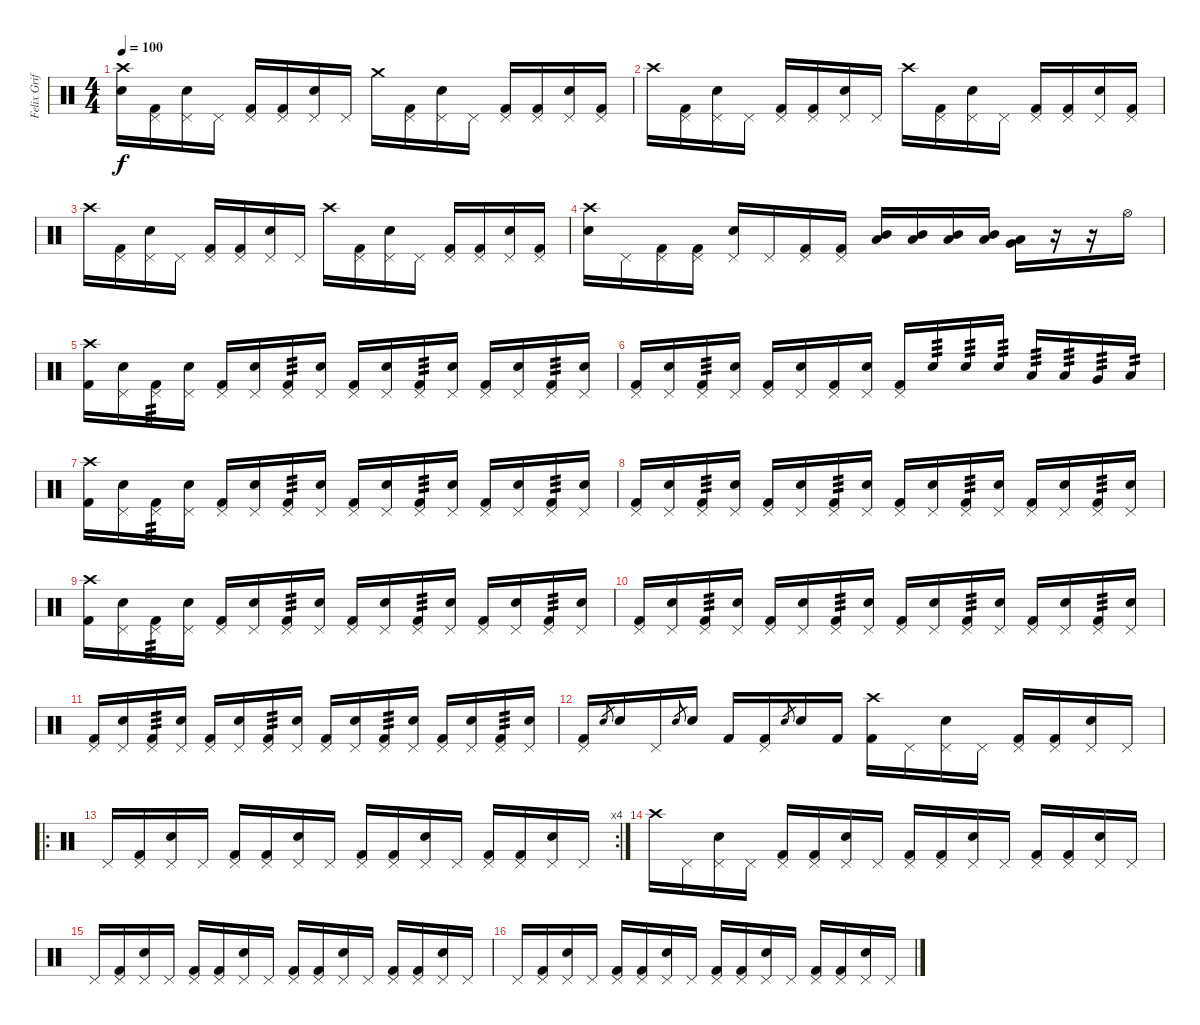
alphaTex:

\track ("Felix Griffen" "Felix Grif") {instrument percussion}
\staff {score}
\articulation defaults
\ts (4 4)
\tempo 100
\clef neutral
\ks c
("Crash high (hit)" "Electric Snare (hit)").16{dy f} ("Pedal Hi-Hat (hit)" "Kick (hit) 2").16 ("Pedal Hi-Hat (hit)" "Electric Snare (hit)").16 "Pedal Hi-Hat (hit)".16 ("Pedal Hi-Hat (hit)" "Kick (hit) 2").16 ("Pedal Hi-Hat (hit)" "Kick (hit) 2").16 ("Pedal Hi-Hat (hit)" "Electric Snare (hit)").16 "Pedal Hi-Hat (hit)".16 "Crash medium (hit)".16 ("Pedal Hi-Hat (hit)" "Kick (hit) 2").16 ("Pedal Hi-Hat (hit)" "Electric Snare (hit)").16 "Pedal Hi-Hat (hit)".16 ("Pedal Hi-Hat (hit)" "Kick (hit) 2").16 ("Pedal Hi-Hat (hit)" "Kick (hit) 2").16 ("Pedal Hi-Hat (hit)" "Electric Snare (hit)").16 ("Pedal Hi-Hat (hit)" "Kick (hit) 2").16 |
"Crash high (hit)".16 ("Pedal Hi-Hat (hit)" "Kick (hit) 2").16 ("Pedal Hi-Hat (hit)" "Electric Snare (hit)").16 "Pedal Hi-Hat (hit)".16 ("Pedal Hi-Hat (hit)" "Kick (hit) 2").16 ("Pedal Hi-Hat (hit)" "Kick (hit) 2").16 ("Pedal Hi-Hat (hit)" "Electric Snare (hit)").16 "Pedal Hi-Hat (hit)".16 "Crash high (hit)".16 ("Pedal Hi-Hat (hit)" "Kick (hit) 2").16 ("Pedal Hi-Hat (hit)" "Electric Snare (hit)").16 "Pedal Hi-Hat (hit)".16 ("Pedal Hi-Hat (hit)" "Kick (hit) 2").16 ("Pedal Hi-Hat (hit)" "Kick (hit) 2").16 ("Pedal Hi-Hat (hit)" "Electric Snare (hit)").16 ("Pedal Hi-Hat (hit)" "Kick (hit) 2").16 |
"Crash high (hit)".16 ("Pedal Hi-Hat (hit)" "Kick (hit) 2").16 ("Pedal Hi-Hat (hit)" "Electric Snare (hit)").16 "Pedal Hi-Hat (hit)".16 ("Pedal Hi-Hat (hit)" "Kick (hit) 2").16 ("Pedal Hi-Hat (hit)" "Kick (hit) 2").16 ("Pedal Hi-Hat (hit)" "Electric Snare (hit)").16 "Pedal Hi-Hat (hit)".16 "Crash high (hit)".16 ("Pedal Hi-Hat (hit)" "Kick (hit) 2").16 ("Pedal Hi-Hat (hit)" "Electric Snare (hit)").16 "Pedal Hi-Hat (hit)".16 ("Pedal Hi-Hat (hit)" "Kick (hit) 2").16 ("Pedal Hi-Hat (hit)" "Kick (hit) 2").16 ("Pedal Hi-Hat (hit)" "Electric Snare (hit)").16 ("Pedal Hi-Hat (hit)" "Kick (hit) 2").16 |
("Crash high (hit)" "Electric Snare (hit)").16 "Pedal Hi-Hat (hit)".16 ("Pedal Hi-Hat (hit)" "Kick (hit) 2").16 ("Pedal Hi-Hat (hit)" "Kick (hit) 2").16 ("Pedal Hi-Hat (hit)" "Electric Snare (hit)").16 "Pedal Hi-Hat (hit)".16 ("Pedal Hi-Hat (hit)" "Kick (hit) 2").16 ("Pedal Hi-Hat (hit)" "Kick (hit) 2").16 ("Mid Tom (hit)" "Low Tom (hit)").16 ("Mid Tom (hit)" "Low Tom (hit)").16 ("Low Tom (hit)" "Mid Tom (hit)").16 ("Low Tom (hit)" "Mid Tom (hit)").16 ("Very Low Tom (hit)" "Low Tom (hit)").16 r.16 r.16 "Hi-Hat (open)".16 |
("Crash high (hit)" "Kick (hit) 2").16 ("Pedal Hi-Hat (hit)" "Electric Snare (hit)").16 ("Pedal Hi-Hat (hit)" "Kick (hit) 2").16{tp 3} ("Pedal Hi-Hat (hit)" "Electric Snare (hit)").16 ("Pedal Hi-Hat (hit)" "Kick (hit) 2").16 ("Pedal Hi-Hat (hit)" "Electric Snare (hit)").16 ("Pedal Hi-Hat (hit)" "Kick (hit) 2").16{tp 3} ("Pedal Hi-Hat (hit)" "Electric Snare (hit)").16 ("Pedal Hi-Hat (hit)" "Kick (hit) 2").16 ("Pedal Hi-Hat (hit)" "Electric Snare (hit)").16 ("Pedal Hi-Hat (hit)" "Kick (hit) 2").16{tp 3} ("Pedal Hi-Hat (hit)" "Electric Snare (hit)").16 ("Pedal Hi-Hat (hit)" "Kick (hit) 2").16 ("Pedal Hi-Hat (hit)" "Electric Snare (hit)").16 ("Pedal Hi-Hat (hit)" "Kick (hit) 2").16{tp 3} ("Pedal Hi-Hat (hit)" "Electric Snare (hit)").16 |
("Pedal Hi-Hat (hit)" "Kick (hit) 2").16 ("Pedal Hi-Hat (hit)" "Electric Snare (hit)").16 ("Pedal Hi-Hat (hit)" "Kick (hit) 2").16{tp 3} ("Pedal Hi-Hat (hit)" "Electric Snare (hit)").16 ("Pedal Hi-Hat (hit)" "Kick (hit) 2").16 ("Pedal Hi-Hat (hit)" "Electric Snare (hit)").16 ("Pedal Hi-Hat (hit)" "Kick (hit) 2").16 ("Pedal Hi-Hat (hit)" "Electric Snare (hit)").16 ("Pedal Hi-Hat (hit)" "Kick (hit) 2").16 "Electric Snare (hit)".16{tp 3} "Electric Snare (hit)".16{tp 3} "Electric Snare (hit)".16{tp 3} "Low Tom (hit)".16{tp 3} "Low Tom (hit)".16{tp 3} "Very Low Tom (hit)".16{tp 3} "Low Floor Tom (hit)".16{tp 2} |
("Crash high (hit)" "Kick (hit) 2").16 ("Pedal Hi-Hat (hit)" "Electric Snare (hit)").16 ("Pedal Hi-Hat (hit)" "Kick (hit) 2").16{tp 3} ("Pedal Hi-Hat (hit)" "Electric Snare (hit)").16 ("Pedal Hi-Hat (hit)" "Kick (hit) 2").16 ("Pedal Hi-Hat (hit)" "Electric Snare (hit)").16 ("Pedal Hi-Hat (hit)" "Kick (hit) 2").16{tp 3} ("Pedal Hi-Hat (hit)" "Electric Snare (hit)").16 ("Pedal Hi-Hat (hit)" "Kick (hit) 2").16 ("Pedal Hi-Hat (hit)" "Electric Snare (hit)").16 ("Pedal Hi-Hat (hit)" "Kick (hit) 2").16{tp 3} ("Pedal Hi-Hat (hit)" "Electric Snare (hit)").16 ("Pedal Hi-Hat (hit)" "Kick (hit) 2").16 ("Pedal Hi-Hat (hit)" "Electric Snare (hit)").16 ("Pedal Hi-Hat (hit)" "Kick (hit) 2").16{tp 3} ("Pedal Hi-Hat (hit)" "Electric Snare (hit)").16 |
("Pedal Hi-Hat (hit)" "Kick (hit) 2").16 ("Pedal Hi-Hat (hit)" "Electric Snare (hit)").16 ("Pedal Hi-Hat (hit)" "Kick (hit) 2").16{tp 3} ("Pedal Hi-Hat (hit)" "Electric Snare (hit)").16 ("Pedal Hi-Hat (hit)" "Kick (hit) 2").16 ("Pedal Hi-Hat (hit)" "Electric Snare (hit)").16 ("Pedal Hi-Hat (hit)" "Kick (hit) 2").16{tp 3} ("Pedal Hi-Hat (hit)" "Electric Snare (hit)").16 ("Pedal Hi-Hat (hit)" "Kick (hit) 2").16 ("Pedal Hi-Hat (hit)" "Electric Snare (hit)").16 ("Pedal Hi-Hat (hit)" "Kick (hit) 2").16{tp 3} ("Pedal Hi-Hat (hit)" "Electric Snare (hit)").16 ("Pedal Hi-Hat (hit)" "Kick (hit) 2").16 ("Pedal Hi-Hat (hit)" "Electric Snare (hit)").16 ("Pedal Hi-Hat (hit)" "Kick (hit) 2").16{tp 3} ("Pedal Hi-Hat (hit)" "Electric Snare (hit)").16 |
("Crash high (hit)" "Kick (hit) 2").16 ("Pedal Hi-Hat (hit)" "Electric Snare (hit)").16 ("Pedal Hi-Hat (hit)" "Kick (hit) 2").16{tp 3} ("Pedal Hi-Hat (hit)" "Electric Snare (hit)").16 ("Pedal Hi-Hat (hit)" "Kick (hit) 2").16 ("Pedal Hi-Hat (hit)" "Electric Snare (hit)").16 ("Pedal Hi-Hat (hit)" "Kick (hit) 2").16{tp 3} ("Pedal Hi-Hat (hit)" "Electric Snare (hit)").16 ("Pedal Hi-Hat (hit)" "Kick (hit) 2").16 ("Pedal Hi-Hat (hit)" "Electric Snare (hit)").16 ("Pedal Hi-Hat (hit)" "Kick (hit) 2").16{tp 3} ("Pedal Hi-Hat (hit)" "Electric Snare (hit)").16 ("Pedal Hi-Hat (hit)" "Kick (hit) 2").16 ("Pedal Hi-Hat (hit)" "Electric Snare (hit)").16 ("Pedal Hi-Hat (hit)" "Kick (hit) 2").16{tp 3} ("Pedal Hi-Hat (hit)" "Electric Snare (hit)").16 |
("Pedal Hi-Hat (hit)" "Kick (hit) 2").16 ("Pedal Hi-Hat (hit)" "Electric Snare (hit)").16 ("Pedal Hi-Hat (hit)" "Kick (hit) 2").16{tp 3} ("Pedal Hi-Hat (hit)" "Electric Snare (hit)").16 ("Pedal Hi-Hat (hit)" "Kick (hit) 2").16 ("Pedal Hi-Hat (hit)" "Electric Snare (hit)").16 ("Pedal Hi-Hat (hit)" "Kick (hit) 2").16{tp 3} ("Pedal Hi-Hat (hit)" "Electric Snare (hit)").16 ("Pedal Hi-Hat (hit)" "Kick (hit) 2").16 ("Pedal Hi-Hat (hit)" "Electric Snare (hit)").16 ("Pedal Hi-Hat (hit)" "Kick (hit) 2").16{tp 3} ("Pedal Hi-Hat (hit)" "Electric Snare (hit)").16 ("Pedal Hi-Hat (hit)" "Kick (hit) 2").16 ("Pedal Hi-Hat (hit)" "Electric Snare (hit)").16 ("Pedal Hi-Hat (hit)" "Kick (hit) 2").16{tp 3} ("Pedal Hi-Hat (hit)" "Electric Snare (hit)").16 |
("Pedal Hi-Hat (hit)" "Kick (hit) 2").16 ("Pedal Hi-Hat (hit)" "Electric Snare (hit)").16 ("Pedal Hi-Hat (hit)" "Kick (hit) 2").16{tp 3} ("Pedal Hi-Hat (hit)" "Electric Snare (hit)").16 ("Pedal Hi-Hat (hit)" "Kick (hit) 2").16 ("Pedal Hi-Hat (hit)" "Electric Snare (hit)").16 ("Pedal Hi-Hat (hit)" "Kick (hit) 2").16{tp 3} ("Pedal Hi-Hat (hit)" "Electric Snare (hit)").16 ("Pedal Hi-Hat (hit)" "Kick (hit) 2").16 ("Pedal Hi-Hat (hit)" "Electric Snare (hit)").16 ("Pedal Hi-Hat (hit)" "Kick (hit) 2").16{tp 3} ("Pedal Hi-Hat (hit)" "Electric Snare (hit)").16 ("Pedal Hi-Hat (hit)" "Kick (hit) 2").16 ("Pedal Hi-Hat (hit)" "Electric Snare (hit)").16 ("Pedal Hi-Hat (hit)" "Kick (hit) 2").16{tp 3} ("Pedal Hi-Hat (hit)" "Electric Snare (hit)").16 |
("Pedal Hi-Hat (hit)" "Kick (hit) 2").16 "Electric Snare (hit)".8{gr} "Electric Snare (hit)".16 "Pedal Hi-Hat (hit)".16 "Electric Snare (hit)".8{gr} "Electric Snare (hit)".16 "Kick (hit) 2".16 ("Pedal Hi-Hat (hit)" "Kick (hit) 2").16 "Electric Snare (hit)".8{gr} "Electric Snare (hit)".16 "Kick (hit) 2".16 ("Crash high (hit)" "Kick (hit) 2").16 "Pedal Hi-Hat (hit)".16 ("Pedal Hi-Hat (hit)" "Electric Snare (hit)").16 "Pedal Hi-Hat (hit)".16 ("Pedal Hi-Hat (hit)" "Kick (hit) 2").16 ("Pedal Hi-Hat (hit)" "Kick (hit) 2").16 ("Pedal Hi-Hat (hit)" "Electric Snare (hit)").16 "Pedal Hi-Hat (hit)".16 |
\ro
\rc 4 "Pedal Hi-Hat (hit)".16
("Pedal Hi-Hat (hit)" "Kick (hit) 2").16 ("Pedal Hi-Hat (hit)" "Electric Snare (hit)").16 "Pedal Hi-Hat (hit)".16 ("Pedal Hi-Hat (hit)" "Kick (hit) 2").16 ("Pedal Hi-Hat (hit)" "Kick (hit) 2").16 ("Pedal Hi-Hat (hit)" "Electric Snare (hit)").16 "Pedal Hi-Hat (hit)".16 ("Pedal Hi-Hat (hit)" "Kick (hit) 2").16 ("Pedal Hi-Hat (hit)" "Kick (hit) 2").16 ("Pedal Hi-Hat (hit)" "Electric Snare (hit)").16 "Pedal Hi-Hat (hit)".16 ("Pedal Hi-Hat (hit)" "Kick (hit) 2").16 ("Pedal Hi-Hat (hit)" "Kick (hit) 2").16 ("Pedal Hi-Hat (hit)" "Electric Snare (hit)").16 "Pedal Hi-Hat (hit)".16 |
"Crash high (hit)".16 "Pedal Hi-Hat (hit)".16 ("Pedal Hi-Hat (hit)" "Electric Snare (hit)").16 "Pedal Hi-Hat (hit)".16 ("Pedal Hi-Hat (hit)" "Kick (hit) 2").16 ("Pedal Hi-Hat (hit)" "Kick (hit) 2").16 ("Pedal Hi-Hat (hit)" "Electric Snare (hit)").16 "Pedal Hi-Hat (hit)".16 ("Pedal Hi-Hat (hit)" "Kick (hit) 2").16 ("Pedal Hi-Hat (hit)" "Kick (hit) 2").16 ("Pedal Hi-Hat (hit)" "Electric Snare (hit)").16 "Pedal Hi-Hat (hit)".16 ("Pedal Hi-Hat (hit)" "Kick (hit) 2").16 ("Pedal Hi-Hat (hit)" "Kick (hit) 2").16 ("Pedal Hi-Hat (hit)" "Electric Snare (hit)").16 "Pedal Hi-Hat (hit)".16 |
"Pedal Hi-Hat (hit)".16 ("Pedal Hi-Hat (hit)" "Kick (hit) 2").16 ("Pedal Hi-Hat (hit)" "Electric Snare (hit)").16 "Pedal Hi-Hat (hit)".16 ("Pedal Hi-Hat (hit)" "Kick (hit) 2").16 ("Pedal Hi-Hat (hit)" "Kick (hit) 2").16 ("Pedal Hi-Hat (hit)" "Electric Snare (hit)").16 "Pedal Hi-Hat (hit)".16 ("Pedal Hi-Hat (hit)" "Kick (hit) 2").16 ("Pedal Hi-Hat (hit)" "Kick (hit) 2").16 ("Pedal Hi-Hat (hit)" "Electric Snare (hit)").16 "Pedal Hi-Hat (hit)".16 ("Pedal Hi-Hat (hit)" "Kick (hit) 2").16 ("Pedal Hi-Hat (hit)" "Kick (hit) 2").16 ("Pedal Hi-Hat (hit)" "Electric Snare (hit)").16 "Pedal Hi-Hat (hit)".16 |
"Pedal Hi-Hat (hit)".16 ("Pedal Hi-Hat (hit)" "Kick (hit) 2").16 ("Pedal Hi-Hat (hit)" "Electric Snare (hit)").16 "Pedal Hi-Hat (hit)".16 ("Pedal Hi-Hat (hit)" "Kick (hit) 2").16 ("Pedal Hi-Hat (hit)" "Kick (hit) 2").16 ("Pedal Hi-Hat (hit)" "Electric Snare (hit)").16 "Pedal Hi-Hat (hit)".16 ("Pedal Hi-Hat (hit)" "Kick (hit) 2").16 ("Pedal Hi-Hat (hit)" "Kick (hit) 2").16 ("Pedal Hi-Hat (hit)" "Electric Snare (hit)").16 "Pedal Hi-Hat (hit)".16 ("Pedal Hi-Hat (hit)" "Kick (hit) 2").16 ("Pedal Hi-Hat (hit)" "Kick (hit) 2").16 ("Pedal Hi-Hat (hit)" "Electric Snare (hit)").16 "Pedal Hi-Hat (hit)".16
